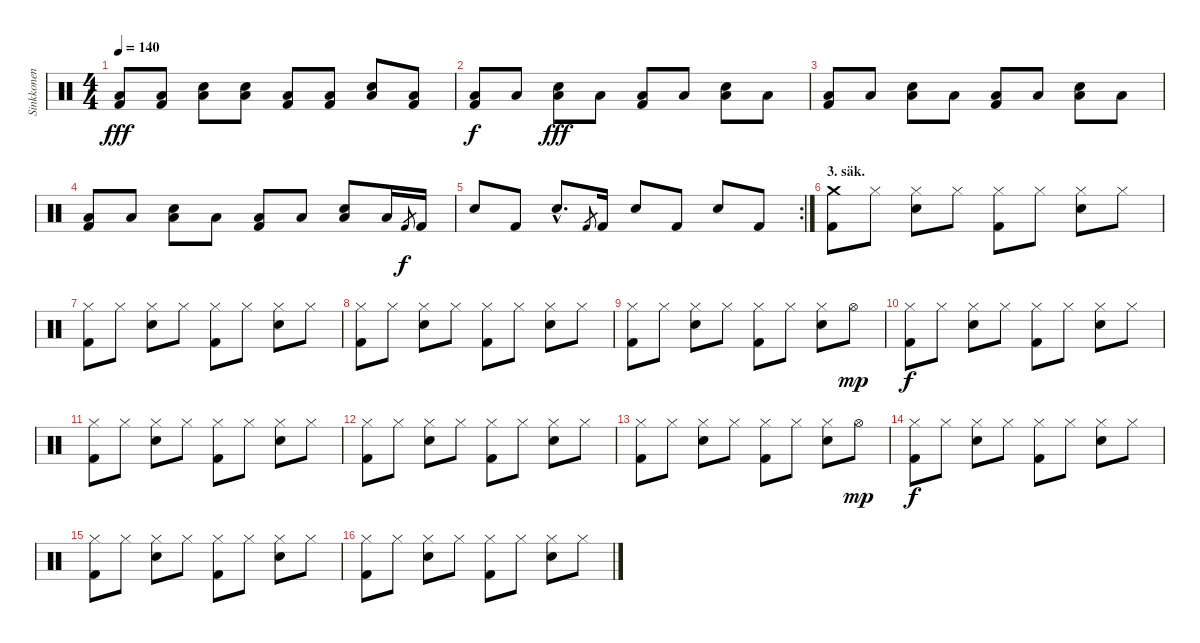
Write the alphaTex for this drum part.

\track ("Sinkkonen" "Sinkkonen") {instrument percussion}
\staff {score}
\articulation defaults
\ts (4 4)
\tempo 140
\clef neutral
\ks c
("Kick (hit) 2" "Low Floor Tom (hit)").8{dy fff} ("Kick (hit) 2" "Low Floor Tom (hit)").8 ("Low Floor Tom (hit)" "Snare (hit) 2").8 ("Low Floor Tom (hit)" "Snare (hit) 2").8 ("Kick (hit) 2" "Low Floor Tom (hit)").8 ("Kick (hit) 2" "Low Floor Tom (hit)").8 ("Low Floor Tom (hit)" "Snare (hit) 2").8 ("Kick (hit) 2" "Low Floor Tom (hit)").8 |
("Kick (hit) 2" "Low Floor Tom (hit)").8{dy f} "Low Floor Tom (hit)".8 ("Low Floor Tom (hit)" "Snare (hit) 2").8{dy fff} "Low Floor Tom (hit)".8 ("Kick (hit) 2" "Low Floor Tom (hit)").8 "Low Floor Tom (hit)".8 ("Low Floor Tom (hit)" "Snare (hit) 2").8 "Low Floor Tom (hit)".8 |
("Kick (hit) 2" "Low Floor Tom (hit)").8 "Low Floor Tom (hit)".8 ("Low Floor Tom (hit)" "Snare (hit) 2").8 "Low Floor Tom (hit)".8 ("Kick (hit) 2" "Low Floor Tom (hit)").8 "Low Floor Tom (hit)".8 ("Low Floor Tom (hit)" "Snare (hit) 2").8 "Low Floor Tom (hit)".8 |
("Kick (hit) 2" "Low Floor Tom (hit)").8 "Low Floor Tom (hit)".8 ("Low Floor Tom (hit)" "Snare (hit) 2").8 "Low Floor Tom (hit)".8 ("Kick (hit) 2" "Low Floor Tom (hit)").8 "Low Floor Tom (hit)".8 ("Low Floor Tom (hit)" "Snare (hit) 2").8 "Low Floor Tom (hit)".16 "Kick (hit) 2".8{gr dy f} "Kick (hit) 2".16 |
\rc 2 "Snare (hit) 2".8 "Kick (hit) 2".8 "Snare (hit) 2"{hac}.8{d} "Kick (hit) 2".8{gr} "Kick (hit) 2".16 "Snare (hit) 2".8 "Kick (hit) 2".8 "Snare (hit) 2".8 "Kick (hit) 2".8
|
\section ("" "3. säk.")
("Kick (hit) 2" "Crash medium (hit)").8 "Hi-Hat (closed)".8 ("Hi-Hat (closed)" "Snare (hit) 2").8 "Hi-Hat (closed)".8 ("Kick (hit) 2" "Hi-Hat (closed)").8 "Hi-Hat (closed)".8 ("Hi-Hat (closed)" "Snare (hit) 2").8 "Hi-Hat (closed)".8 |
("Kick (hit) 2" "Hi-Hat (closed)").8 "Hi-Hat (closed)".8 ("Hi-Hat (closed)" "Snare (hit) 2").8 "Hi-Hat (closed)".8 ("Kick (hit) 2" "Hi-Hat (closed)").8 "Hi-Hat (closed)".8 ("Hi-Hat (closed)" "Snare (hit) 2").8 "Hi-Hat (closed)".8 |
("Kick (hit) 2" "Hi-Hat (closed)").8 "Hi-Hat (closed)".8 ("Hi-Hat (closed)" "Snare (hit) 2").8 "Hi-Hat (closed)".8 ("Kick (hit) 2" "Hi-Hat (closed)").8 "Hi-Hat (closed)".8 ("Hi-Hat (closed)" "Snare (hit) 2").8 "Hi-Hat (closed)".8 |
("Kick (hit) 2" "Hi-Hat (closed)").8 "Hi-Hat (closed)".8 ("Hi-Hat (closed)" "Snare (hit) 2").8 "Hi-Hat (closed)".8 ("Kick (hit) 2" "Hi-Hat (closed)").8 "Hi-Hat (closed)".8 ("Hi-Hat (closed)" "Snare (hit) 2").8 "Hi-Hat (open)".8{dy mp} |
("Kick (hit) 2" "Hi-Hat (closed)").8{dy f} "Hi-Hat (closed)".8 ("Hi-Hat (closed)" "Snare (hit) 2").8 "Hi-Hat (closed)".8 ("Kick (hit) 2" "Hi-Hat (closed)").8 "Hi-Hat (closed)".8 ("Hi-Hat (closed)" "Snare (hit) 2").8 "Hi-Hat (closed)".8 |
("Kick (hit) 2" "Hi-Hat (closed)").8 "Hi-Hat (closed)".8 ("Hi-Hat (closed)" "Snare (hit) 2").8 "Hi-Hat (closed)".8 ("Kick (hit) 2" "Hi-Hat (closed)").8 "Hi-Hat (closed)".8 ("Hi-Hat (closed)" "Snare (hit) 2").8 "Hi-Hat (closed)".8 |
("Kick (hit) 2" "Hi-Hat (closed)").8 "Hi-Hat (closed)".8 ("Hi-Hat (closed)" "Snare (hit) 2").8 "Hi-Hat (closed)".8 ("Kick (hit) 2" "Hi-Hat (closed)").8 "Hi-Hat (closed)".8 ("Hi-Hat (closed)" "Snare (hit) 2").8 "Hi-Hat (closed)".8 |
("Kick (hit) 2" "Hi-Hat (closed)").8 "Hi-Hat (closed)".8 ("Hi-Hat (closed)" "Snare (hit) 2").8 "Hi-Hat (closed)".8 ("Kick (hit) 2" "Hi-Hat (closed)").8 "Hi-Hat (closed)".8 ("Hi-Hat (closed)" "Snare (hit) 2").8 "Hi-Hat (open)".8{dy mp} |
("Kick (hit) 2" "Hi-Hat (closed)").8{dy f} "Hi-Hat (closed)".8 ("Hi-Hat (closed)" "Snare (hit) 2").8 "Hi-Hat (closed)".8 ("Kick (hit) 2" "Hi-Hat (closed)").8 "Hi-Hat (closed)".8 ("Hi-Hat (closed)" "Snare (hit) 2").8 "Hi-Hat (closed)".8 |
("Kick (hit) 2" "Hi-Hat (closed)").8 "Hi-Hat (closed)".8 ("Hi-Hat (closed)" "Snare (hit) 2").8 "Hi-Hat (closed)".8 ("Kick (hit) 2" "Hi-Hat (closed)").8 "Hi-Hat (closed)".8 ("Hi-Hat (closed)" "Snare (hit) 2").8 "Hi-Hat (closed)".8 |
("Kick (hit) 2" "Hi-Hat (closed)").8 "Hi-Hat (closed)".8 ("Hi-Hat (closed)" "Snare (hit) 2").8 "Hi-Hat (closed)".8 ("Kick (hit) 2" "Hi-Hat (closed)").8 "Hi-Hat (closed)".8 ("Hi-Hat (closed)" "Snare (hit) 2").8 "Hi-Hat (closed)".8
